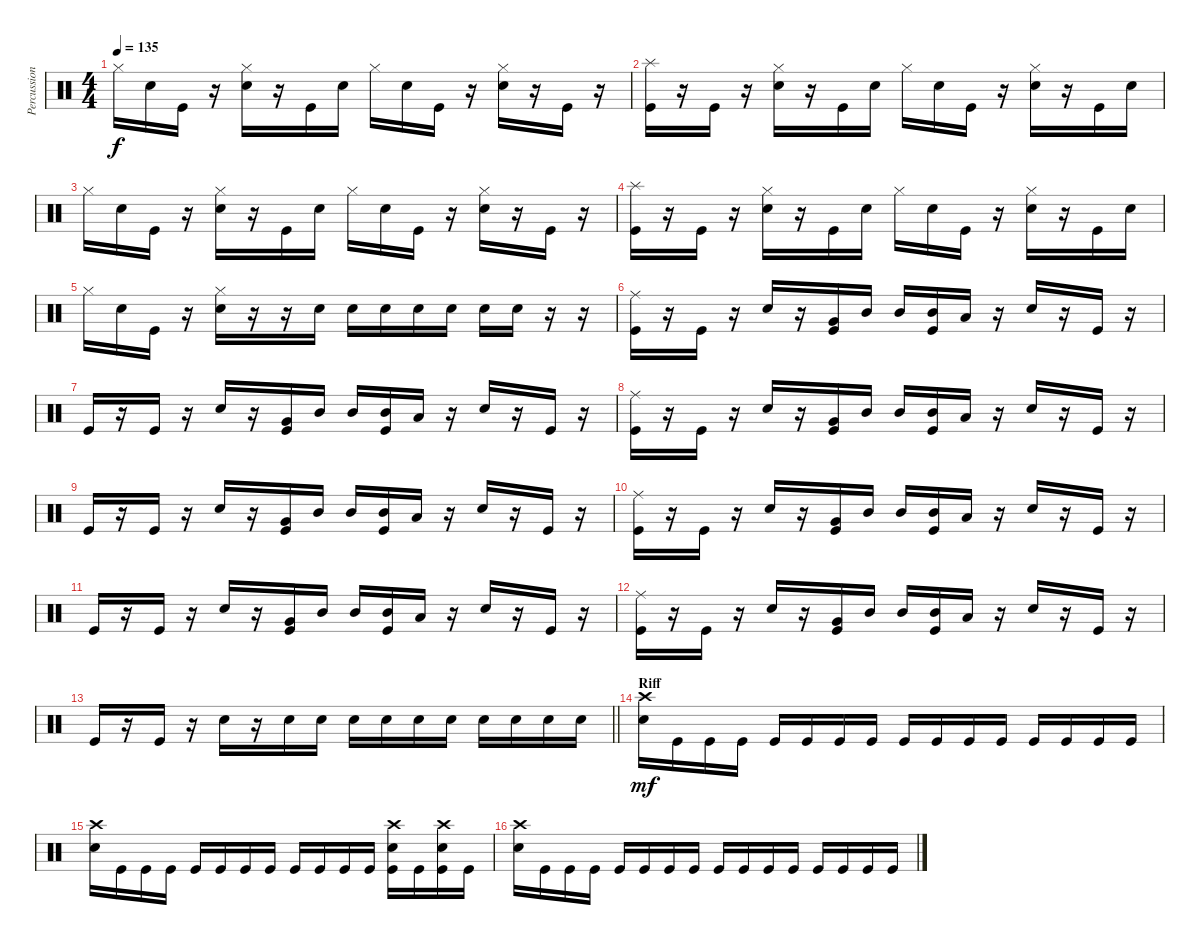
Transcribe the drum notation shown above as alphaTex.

\track ("Percussion" "Percussion") {instrument percussion}
\staff {score}
\articulation defaults
\ts (4 4)
\tempo 135
\clef neutral
\ks c "Hi-Hat (closed)".16{dy f} "Snare (hit) 2".16 "Kick (hit)".16
r.16 ("Hi-Hat (closed)" "Snare (hit) 2").16 r.16 "Kick (hit)".16 "Snare (hit) 2".16 "Hi-Hat (closed)".16 "Snare (hit) 2".16 "Kick (hit)".16 r.16 ("Hi-Hat (closed)" "Snare (hit) 2").16 r.16 "Kick (hit)".16 r.16 |
("Splash (hit)" "Kick (hit)").16 r.16 "Kick (hit)".16 r.16 ("Hi-Hat (closed)" "Snare (hit) 2").16 r.16 "Kick (hit)".16 "Snare (hit) 2".16 "Hi-Hat (closed)".16 "Snare (hit) 2".16 "Kick (hit)".16 r.16 ("Hi-Hat (closed)" "Snare (hit) 2").16 r.16 "Kick (hit)".16 "Snare (hit) 2".16 |
"Hi-Hat (closed)".16 "Snare (hit) 2".16 "Kick (hit)".16 r.16 ("Hi-Hat (closed)" "Snare (hit) 2").16 r.16 "Kick (hit)".16 "Snare (hit) 2".16 "Hi-Hat (closed)".16 "Snare (hit) 2".16 "Kick (hit)".16 r.16 ("Hi-Hat (closed)" "Snare (hit) 2").16 r.16 "Kick (hit)".16 r.16 |
("Splash (hit)" "Kick (hit)").16 r.16 "Kick (hit)".16 r.16 ("Hi-Hat (closed)" "Snare (hit) 2").16 r.16 "Kick (hit)".16 "Snare (hit) 2".16 "Hi-Hat (closed)".16 "Snare (hit) 2".16 "Kick (hit)".16 r.16 ("Hi-Hat (closed)" "Snare (hit) 2").16 r.16 "Kick (hit)".16 "Snare (hit) 2".16 |
"Hi-Hat (closed)".16 "Snare (hit) 2".16 "Kick (hit)".16 r.16 ("Hi-Hat (closed)" "Snare (hit) 2").16 r.16 r.16 "Snare (hit) 2".16 "Snare (hit) 2".16 "Snare (hit) 2".16 "Snare (hit) 2".16 "Snare (hit) 2".16 "Snare (hit) 2".16 "Snare (hit) 2".16 r.16 r.16 |
("Ride (middle)" "Kick (hit)").16 r.16 "Kick (hit)".16 r.16 "Snare (hit) 2".16 r.16 ("Very Low Tom (hit)" "Kick (hit)").16 "Mid Tom (hit)".16 "Mid Tom (hit)".16 ("Mid Tom (hit)" "Kick (hit)").16 "Low Floor Tom (hit)".16 r.16 "Snare (hit) 2".16 r.16 "Kick (hit)".16 r.16 |
"Kick (hit)".16 r.16 "Kick (hit)".16 r.16 "Snare (hit) 2".16 r.16 ("Very Low Tom (hit)" "Kick (hit)").16 "Mid Tom (hit)".16 "Mid Tom (hit)".16 ("Mid Tom (hit)" "Kick (hit)").16 "Low Floor Tom (hit)".16 r.16 "Snare (hit) 2".16 r.16 "Kick (hit)".16 r.16 |
("Ride (middle)" "Kick (hit)").16 r.16 "Kick (hit)".16 r.16 "Snare (hit) 2".16 r.16 ("Very Low Tom (hit)" "Kick (hit)").16 "Mid Tom (hit)".16 "Mid Tom (hit)".16 ("Mid Tom (hit)" "Kick (hit)").16 "Low Floor Tom (hit)".16 r.16 "Snare (hit) 2".16 r.16 "Kick (hit)".16 r.16 |
"Kick (hit)".16 r.16 "Kick (hit)".16 r.16 "Snare (hit) 2".16 r.16 ("Very Low Tom (hit)" "Kick (hit)").16 "Mid Tom (hit)".16 "Mid Tom (hit)".16 ("Mid Tom (hit)" "Kick (hit)").16 "Low Floor Tom (hit)".16 r.16 "Snare (hit) 2".16 r.16 "Kick (hit)".16 r.16 |
("Ride (middle)" "Kick (hit)").16 r.16 "Kick (hit)".16 r.16 "Snare (hit) 2".16 r.16 ("Very Low Tom (hit)" "Kick (hit)").16 "Mid Tom (hit)".16 "Mid Tom (hit)".16 ("Mid Tom (hit)" "Kick (hit)").16 "Low Floor Tom (hit)".16 r.16 "Snare (hit) 2".16 r.16 "Kick (hit)".16 r.16 |
"Kick (hit)".16 r.16 "Kick (hit)".16 r.16 "Snare (hit) 2".16 r.16 ("Very Low Tom (hit)" "Kick (hit)").16 "Mid Tom (hit)".16 "Mid Tom (hit)".16 ("Mid Tom (hit)" "Kick (hit)").16 "Low Floor Tom (hit)".16 r.16 "Snare (hit) 2".16 r.16 "Kick (hit)".16 r.16 |
("Ride (middle)" "Kick (hit)").16 r.16 "Kick (hit)".16 r.16 "Snare (hit) 2".16 r.16 ("Very Low Tom (hit)" "Kick (hit)").16 "Mid Tom (hit)".16 "Mid Tom (hit)".16 ("Mid Tom (hit)" "Kick (hit)").16 "Low Floor Tom (hit)".16 r.16 "Snare (hit) 2".16 r.16 "Kick (hit)".16 r.16 |
\barLineRight lightlight "Kick (hit)".16
r.16 "Kick (hit)".16 r.16 "Snare (hit) 2".16 r.16 "Snare (hit) 2".16 "Snare (hit) 2".16 "Snare (hit) 2".16 "Snare (hit) 2".16 "Snare (hit) 2".16 "Snare (hit) 2".16 "Snare (hit) 2".16 "Snare (hit) 2".16 "Snare (hit) 2".16 "Snare (hit) 2".16 |
\section ("" "Riff")
("Crash high (hit)" "Snare (hit) 2").16{dy mf} "Kick (hit)".16 "Kick (hit)".16 "Kick (hit)".16 "Kick (hit)".16 "Kick (hit)".16 "Kick (hit)".16 "Kick (hit)".16 "Kick (hit)".16 "Kick (hit)".16 "Kick (hit)".16 "Kick (hit)".16 "Kick (hit)".16 "Kick (hit)".16 "Kick (hit)".16 "Kick (hit)".16 |
("Crash high (hit)" "Snare (hit) 2").16 "Kick (hit)".16 "Kick (hit)".16 "Kick (hit)".16 "Kick (hit)".16 "Kick (hit)".16 "Kick (hit)".16 "Kick (hit)".16 "Kick (hit)".16 "Kick (hit)".16 "Kick (hit)".16 "Kick (hit)".16 ("Crash high (hit)" "Snare (hit) 2" "Kick (hit)").16 "Kick (hit)".16 ("Crash high (hit)" "Snare (hit) 2" "Kick (hit)").16 "Kick (hit)".16 |
("Crash high (hit)" "Snare (hit) 2").16 "Kick (hit)".16 "Kick (hit)".16 "Kick (hit)".16 "Kick (hit)".16 "Kick (hit)".16 "Kick (hit)".16 "Kick (hit)".16 "Kick (hit)".16 "Kick (hit)".16 "Kick (hit)".16 "Kick (hit)".16 "Kick (hit)".16 "Kick (hit)".16 "Kick (hit)".16 "Kick (hit)".16
